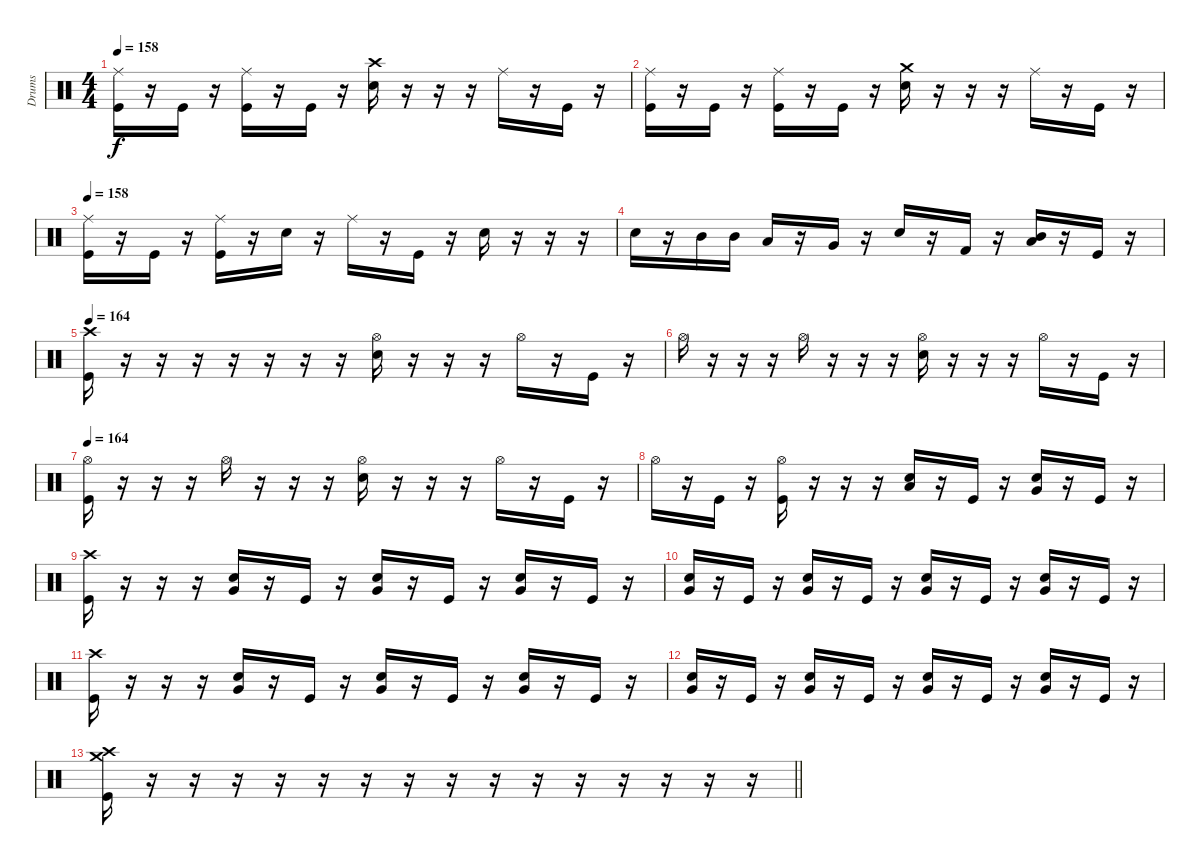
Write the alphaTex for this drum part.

\track ("Drums" "Drums") {instrument percussion}
\staff {score}
\articulation defaults
\ts (4 4)
\tempo 158
\clef neutral
\ks c
("Kick (hit)" "Ride (middle)").16{dy f} r.16 "Kick (hit)".16 r.16 ("Kick (hit)" "Ride (middle)").16 r.16 "Kick (hit)".16 r.16 ("Electric Snare (hit)" "Crash high (hit)").16 r.16 r.16 r.16 "Ride (middle)".16 r.16 "Kick (hit)".16 r.16 |
("Kick (hit)" "Ride (middle)").16 r.16 "Kick (hit)".16 r.16 ("Kick (hit)" "Ride (middle)").16 r.16 "Kick (hit)".16 r.16 ("Electric Snare (hit)" "Crash medium (hit)").16 r.16 r.16 r.16 "Ride (middle)".16 r.16 "Kick (hit)".16 r.16 |
\tempo 158
("Ride (middle)" "Kick (hit)").16 r.16 "Kick (hit)".16 r.16 ("Ride (middle)" "Kick (hit)").16 r.16 "Electric Snare (hit)".16 r.16 "Ride (middle)".16 r.16 "Kick (hit)".16 r.16 "Electric Snare (hit)".16 r.16 r.16 r.16 |
"Electric Snare (hit)".16 r.16 "Mid Tom (hit)".16 "Mid Tom (hit)".16 "Low Tom (hit)".16 r.16 "Very Low Tom (hit)".16 r.16 "Electric Snare (hit)".16 r.16 "Kick (hit) 2".16 r.16 ("Mid Tom (hit)" "Low Tom (hit)").16 r.16 "Kick (hit)".16 r.16 |
\tempo 164
("Kick (hit)" "Crash high (hit)").16 r.16 r.16 r.16 r.16 r.16 r.16 r.16 ("Electric Snare (hit)" "Hi-Hat (open)").16 r.16 r.16 r.16 "Hi-Hat (open)".16 r.16 "Kick (hit)".16 r.16 |
"Hi-Hat (open)".16 r.16 r.16 r.16 "Hi-Hat (open)".16 r.16 r.16 r.16 ("Electric Snare (hit)" "Hi-Hat (open)").16 r.16 r.16 r.16 "Hi-Hat (open)".16 r.16 "Kick (hit)".16 r.16 |
\tempo 164
("Kick (hit)" "Hi-Hat (open)").16 r.16 r.16 r.16 "Hi-Hat (open)".16 r.16 r.16 r.16 ("Electric Snare (hit)" "Hi-Hat (open)").16 r.16 r.16 r.16 "Hi-Hat (open)".16 r.16 "Kick (hit)".16 r.16 |
"Hi-Hat (open)".16 r.16 "Kick (hit)".16 r.16 ("Hi-Hat (open)" "Kick (hit)").16 r.16 r.16 r.16 ("Electric Snare (hit)" "Low Tom (hit)").16 r.16 "Kick (hit)".16 r.16 ("Electric Snare (hit)" "Very Low Tom (hit)").16 r.16 "Kick (hit)".16 r.16 |
("Crash high (hit)" "Kick (hit)").16 r.16 r.16 r.16 ("Very Low Tom (hit)" "Electric Snare (hit)").16 r.16 "Kick (hit)".16 r.16 ("Electric Snare (hit)" "Very Low Tom (hit)").16 r.16 "Kick (hit)".16 r.16 ("Electric Snare (hit)" "Very Low Tom (hit)").16 r.16 "Kick (hit)".16 r.16 |
("Electric Snare (hit)" "Very Low Tom (hit)").16 r.16 "Kick (hit)".16 r.16 ("Very Low Tom (hit)" "Electric Snare (hit)").16 r.16 "Kick (hit)".16 r.16 ("Electric Snare (hit)" "Very Low Tom (hit)").16 r.16 "Kick (hit)".16 r.16 ("Electric Snare (hit)" "Very Low Tom (hit)").16 r.16 "Kick (hit)".16 r.16 |
("Kick (hit)" "Crash high (hit)").16 r.16 r.16 r.16 ("Very Low Tom (hit)" "Electric Snare (hit)").16 r.16 "Kick (hit)".16 r.16 ("Electric Snare (hit)" "Very Low Tom (hit)").16 r.16 "Kick (hit)".16 r.16 ("Electric Snare (hit)" "Very Low Tom (hit)").16 r.16 "Kick (hit)".16 r.16 |
("Electric Snare (hit)" "Very Low Tom (hit)").16 r.16 "Kick (hit)".16 r.16 ("Very Low Tom (hit)" "Electric Snare (hit)").16 r.16 "Kick (hit)".16 r.16 ("Electric Snare (hit)" "Very Low Tom (hit)").16 r.16 "Kick (hit)".16 r.16 ("Electric Snare (hit)" "Very Low Tom (hit)").16 r.16 "Kick (hit)".16 r.16 |
\barLineRight lightlight
("Crash medium (hit)" "Kick (hit)" "Crash high (hit)").16 r.16 r.16 r.16 r.16 r.16 r.16 r.16 r.16 r.16 r.16 r.16 r.16 r.16 r.16 r.16
